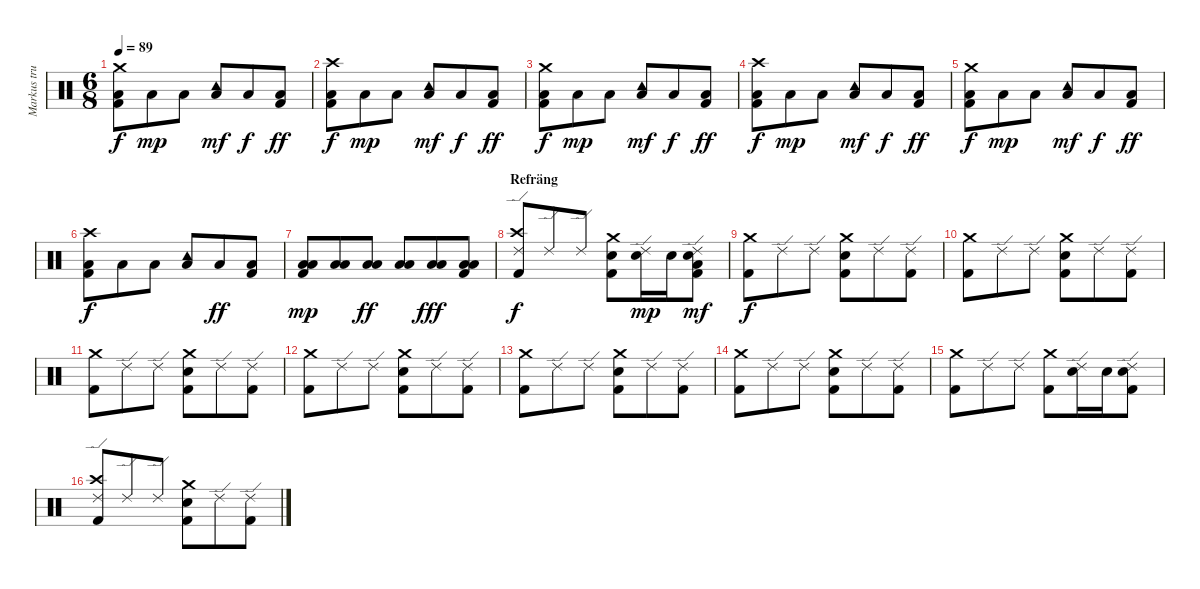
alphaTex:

\track ("Markus trummor" "Markus tru") {instrument percussion}
\staff {score}
\articulation defaults
\ts (6 8)
\tempo 89
\clef neutral
\ks c
("Crash medium (hit)" "Low Floor Tom (hit)" "Kick (hit) 2").8{dy f} "Low Floor Tom (hit)".8{dy mp} "Low Floor Tom (hit)".8 ("Tambourine (hit)" "Low Floor Tom (hit)").8{dy mf} "Low Floor Tom (hit)".8{dy f} ("Low Floor Tom (hit)" "Kick (hit) 2").8{dy ff} |
("Crash high (hit)" "Low Floor Tom (hit)" "Kick (hit) 2").8{dy f} "Low Floor Tom (hit)".8{dy mp} "Low Floor Tom (hit)".8 ("Tambourine (hit)" "Low Floor Tom (hit)").8{dy mf} "Low Floor Tom (hit)".8{dy f} ("Low Floor Tom (hit)" "Kick (hit) 2").8{dy ff} |
("Crash medium (hit)" "Low Floor Tom (hit)" "Kick (hit) 2").8{dy f} "Low Floor Tom (hit)".8{dy mp} "Low Floor Tom (hit)".8 ("Tambourine (hit)" "Low Floor Tom (hit)").8{dy mf} "Low Floor Tom (hit)".8{dy f} ("Low Floor Tom (hit)" "Kick (hit) 2").8{dy ff} |
("Crash high (hit)" "Low Floor Tom (hit)" "Kick (hit) 2").8{dy f} "Low Floor Tom (hit)".8{dy mp} "Low Floor Tom (hit)".8 ("Tambourine (hit)" "Low Floor Tom (hit)").8{dy mf} "Low Floor Tom (hit)".8{dy f} ("Low Floor Tom (hit)" "Kick (hit) 2").8{dy ff} |
("Crash medium (hit)" "Low Floor Tom (hit)" "Kick (hit) 2").8{dy f} "Low Floor Tom (hit)".8{dy mp} "Low Floor Tom (hit)".8 ("Tambourine (hit)" "Low Floor Tom (hit)").8{dy mf} "Low Floor Tom (hit)".8{dy f} ("Low Floor Tom (hit)" "Kick (hit) 2").8{dy ff} |
("Crash high (hit)" "Low Floor Tom (hit)" "Kick (hit) 2").8{dy f} "Low Floor Tom (hit)".8 "Low Floor Tom (hit)".8 ("Tambourine (hit)" "Low Floor Tom (hit)").8 "Low Floor Tom (hit)".8{dy ff} ("Low Floor Tom (hit)" "Kick (hit) 2").8 |
("Low Tom (hit)" "Low Floor Tom (hit)" "Kick (hit) 2").8{dy mp} ("Low Tom (hit)" "Low Floor Tom (hit)").8 ("Low Tom (hit)" "Low Floor Tom (hit)").8{dy ff} ("Low Tom (hit)" "Low Floor Tom (hit)").8 ("Low Tom (hit)" "Low Floor Tom (hit)").8{dy fff} ("Low Tom (hit)" "Low Floor Tom (hit)" "Kick (hit) 2").8 |
\section ("" "Refräng")
("Crash high (hit)" "Ride (edge) 2" "Kick (hit) 2").8{dy f} "Ride (edge) 2".8 "Ride (edge) 2".8 ("Crash medium (hit)" "Snare (hit) 2" "Kick (hit) 2").8 ("Ride (edge) 2" "Snare (hit) 2").16{dy mp} "Snare (hit) 2".16 ("Ride (edge) 2" "Snare (hit) 2" "Low Floor Tom (hit)" "Kick (hit) 2").8{dy mf} |
("Crash medium (hit)" "Kick (hit) 2").8{dy f} "Ride (edge) 2".8 "Ride (edge) 2".8 ("Crash medium (hit)" "Snare (hit) 2" "Kick (hit) 2").8 "Ride (edge) 2".8 ("Ride (edge) 2" "Kick (hit) 2").8 |
("Crash medium (hit)" "Kick (hit) 2").8 "Ride (edge) 2".8 "Ride (edge) 2".8 ("Crash medium (hit)" "Snare (hit) 2" "Kick (hit) 2").8 "Ride (edge) 2".8 ("Ride (edge) 2" "Kick (hit) 2").8 |
("Crash medium (hit)" "Kick (hit) 2").8 "Ride (edge) 2".8 "Ride (edge) 2".8 ("Crash medium (hit)" "Snare (hit) 2" "Kick (hit) 2").8 "Ride (edge) 2".8 ("Ride (edge) 2" "Kick (hit) 2").8 |
("Crash medium (hit)" "Kick (hit) 2").8 "Ride (edge) 2".8 "Ride (edge) 2".8 ("Crash medium (hit)" "Snare (hit) 2" "Kick (hit) 2").8 "Ride (edge) 2".8 ("Ride (edge) 2" "Kick (hit) 2").8 |
("Crash medium (hit)" "Kick (hit) 2").8 "Ride (edge) 2".8 "Ride (edge) 2".8 ("Crash medium (hit)" "Snare (hit) 2" "Kick (hit) 2").8 "Ride (edge) 2".8 ("Ride (edge) 2" "Kick (hit) 2").8 |
("Crash medium (hit)" "Kick (hit) 2").8 "Ride (edge) 2".8 "Ride (edge) 2".8 ("Crash medium (hit)" "Snare (hit) 2" "Kick (hit) 2").8 "Ride (edge) 2".8 ("Ride (edge) 2" "Kick (hit) 2").8 |
("Crash medium (hit)" "Kick (hit) 2").8 "Ride (edge) 2".8 "Ride (edge) 2".8 ("Crash medium (hit)" "Kick (hit) 2").8 ("Ride (edge) 2" "Snare (hit) 2").16 "Snare (hit) 2".16 ("Ride (edge) 2" "Snare (hit) 2" "Kick (hit) 2").8 |
("Crash high (hit)" "Ride (edge) 2" "Kick (hit) 2").8 "Ride (edge) 2".8 "Ride (edge) 2".8 ("Crash medium (hit)" "Snare (hit) 2" "Kick (hit) 2").8 "Ride (edge) 2".8 ("Ride (edge) 2" "Kick (hit) 2").8
